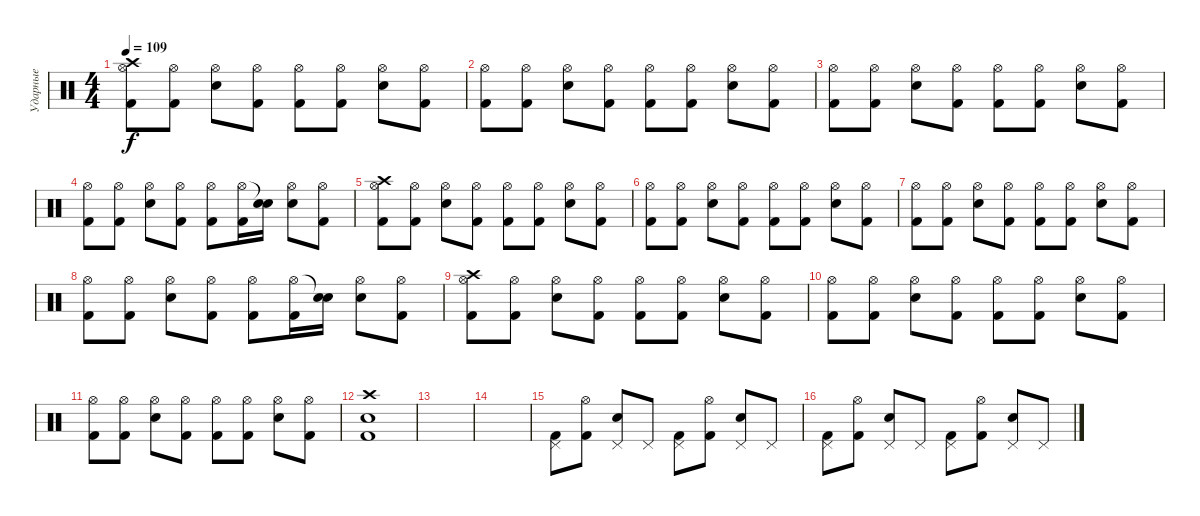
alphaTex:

\track ("Ударные" "Ударные") {instrument percussion}
\staff {score}
\articulation defaults
\ts (4 4)
\tempo 109
\clef neutral
\ks c
("Kick (hit) 2" "Crash high (hit)" "Hi-Hat (open)").8{dy f} ("Kick (hit) 2" "Hi-Hat (open)").8 ("Snare (hit) 2" "Hi-Hat (open)").8 ("Kick (hit) 2" "Hi-Hat (open)").8 ("Kick (hit) 2" "Hi-Hat (open)").8 ("Kick (hit) 2" "Hi-Hat (open)").8 ("Snare (hit) 2" "Hi-Hat (open)").8 ("Kick (hit) 2" "Hi-Hat (open)").8 |
("Kick (hit) 2" "Hi-Hat (open)").8 ("Kick (hit) 2" "Hi-Hat (open)").8 ("Snare (hit) 2" "Hi-Hat (open)").8 ("Kick (hit) 2" "Hi-Hat (open)").8 ("Kick (hit) 2" "Hi-Hat (open)").8 ("Kick (hit) 2" "Hi-Hat (open)").8 ("Snare (hit) 2" "Hi-Hat (open)").8 ("Kick (hit) 2" "Hi-Hat (open)").8 |
("Kick (hit) 2" "Hi-Hat (open)").8 ("Kick (hit) 2" "Hi-Hat (open)").8 ("Snare (hit) 2" "Hi-Hat (open)").8 ("Kick (hit) 2" "Hi-Hat (open)").8 ("Kick (hit) 2" "Hi-Hat (open)").8 ("Kick (hit) 2" "Hi-Hat (open)").8 ("Snare (hit) 2" "Hi-Hat (open)").8 ("Kick (hit) 2" "Hi-Hat (open)").8 |
("Kick (hit) 2" "Hi-Hat (open)").8 ("Kick (hit) 2" "Hi-Hat (open)").8 ("Snare (hit) 2" "Hi-Hat (open)").8 ("Kick (hit) 2" "Hi-Hat (open)").8 ("Kick (hit) 2" "Hi-Hat (open)").8 ("Kick (hit) 2" "Hi-Hat (open)").16 ("Snare (hit) 2" "Snare (hit)"{t}).16 ("Snare (hit) 2" "Hi-Hat (open)").8 ("Kick (hit) 2" "Hi-Hat (open)").8 |
("Kick (hit) 2" "Crash high (hit)" "Hi-Hat (open)").8 ("Kick (hit) 2" "Hi-Hat (open)").8 ("Snare (hit) 2" "Hi-Hat (open)").8 ("Kick (hit) 2" "Hi-Hat (open)").8 ("Kick (hit) 2" "Hi-Hat (open)").8 ("Kick (hit) 2" "Hi-Hat (open)").8 ("Snare (hit) 2" "Hi-Hat (open)").8 ("Kick (hit) 2" "Hi-Hat (open)").8 |
("Kick (hit) 2" "Hi-Hat (open)").8 ("Kick (hit) 2" "Hi-Hat (open)").8 ("Snare (hit) 2" "Hi-Hat (open)").8 ("Kick (hit) 2" "Hi-Hat (open)").8 ("Kick (hit) 2" "Hi-Hat (open)").8 ("Kick (hit) 2" "Hi-Hat (open)").8 ("Snare (hit) 2" "Hi-Hat (open)").8 ("Kick (hit) 2" "Hi-Hat (open)").8 |
("Kick (hit) 2" "Hi-Hat (open)").8 ("Kick (hit) 2" "Hi-Hat (open)").8 ("Snare (hit) 2" "Hi-Hat (open)").8 ("Kick (hit) 2" "Hi-Hat (open)").8 ("Kick (hit) 2" "Hi-Hat (open)").8 ("Kick (hit) 2" "Hi-Hat (open)").8 ("Snare (hit) 2" "Hi-Hat (open)").8 ("Kick (hit) 2" "Hi-Hat (open)").8 |
("Kick (hit) 2" "Hi-Hat (open)").8 ("Kick (hit) 2" "Hi-Hat (open)").8 ("Snare (hit) 2" "Hi-Hat (open)").8 ("Kick (hit) 2" "Hi-Hat (open)").8 ("Kick (hit) 2" "Hi-Hat (open)").8 ("Kick (hit) 2" "Hi-Hat (open)").16 ("Snare (hit) 2" "Snare (hit)"{t}).16 ("Snare (hit) 2" "Hi-Hat (open)").8 ("Kick (hit) 2" "Hi-Hat (open)").8 |
("Kick (hit) 2" "Crash high (hit)" "Hi-Hat (open)").8 ("Kick (hit) 2" "Hi-Hat (open)").8 ("Snare (hit) 2" "Hi-Hat (open)").8 ("Kick (hit) 2" "Hi-Hat (open)").8 ("Kick (hit) 2" "Hi-Hat (open)").8 ("Kick (hit) 2" "Hi-Hat (open)").8 ("Snare (hit) 2" "Hi-Hat (open)").8 ("Kick (hit) 2" "Hi-Hat (open)").8 |
("Kick (hit) 2" "Hi-Hat (open)").8 ("Kick (hit) 2" "Hi-Hat (open)").8 ("Snare (hit) 2" "Hi-Hat (open)").8 ("Kick (hit) 2" "Hi-Hat (open)").8 ("Kick (hit) 2" "Hi-Hat (open)").8 ("Kick (hit) 2" "Hi-Hat (open)").8 ("Snare (hit) 2" "Hi-Hat (open)").8 ("Kick (hit) 2" "Hi-Hat (open)").8 |
("Kick (hit) 2" "Hi-Hat (open)").8 ("Kick (hit) 2" "Hi-Hat (open)").8 ("Snare (hit) 2" "Hi-Hat (open)").8 ("Kick (hit) 2" "Hi-Hat (open)").8 ("Kick (hit) 2" "Hi-Hat (open)").8 ("Kick (hit) 2" "Hi-Hat (open)").8 ("Snare (hit) 2" "Hi-Hat (open)").8 ("Kick (hit) 2" "Hi-Hat (open)").8 |
("Kick (hit) 2" "Snare (hit) 2" "Crash high (hit)").1 |
|
|
("Kick (hit) 2" "Pedal Hi-Hat (hit)").8 ("Kick (hit) 2" "Hi-Hat (open)").8 ("Pedal Hi-Hat (hit)" "Snare (hit) 2").8 "Pedal Hi-Hat (hit)".8 ("Kick (hit) 2" "Pedal Hi-Hat (hit)").8 ("Kick (hit) 2" "Hi-Hat (open)").8 ("Pedal Hi-Hat (hit)" "Snare (hit) 2").8 "Pedal Hi-Hat (hit)".8 |
("Kick (hit) 2" "Pedal Hi-Hat (hit)").8 ("Kick (hit) 2" "Hi-Hat (open)").8 ("Pedal Hi-Hat (hit)" "Snare (hit) 2").8 "Pedal Hi-Hat (hit)".8 ("Kick (hit) 2" "Pedal Hi-Hat (hit)").8 ("Kick (hit) 2" "Hi-Hat (open)").8 ("Pedal Hi-Hat (hit)" "Snare (hit) 2").8 "Pedal Hi-Hat (hit)".8
